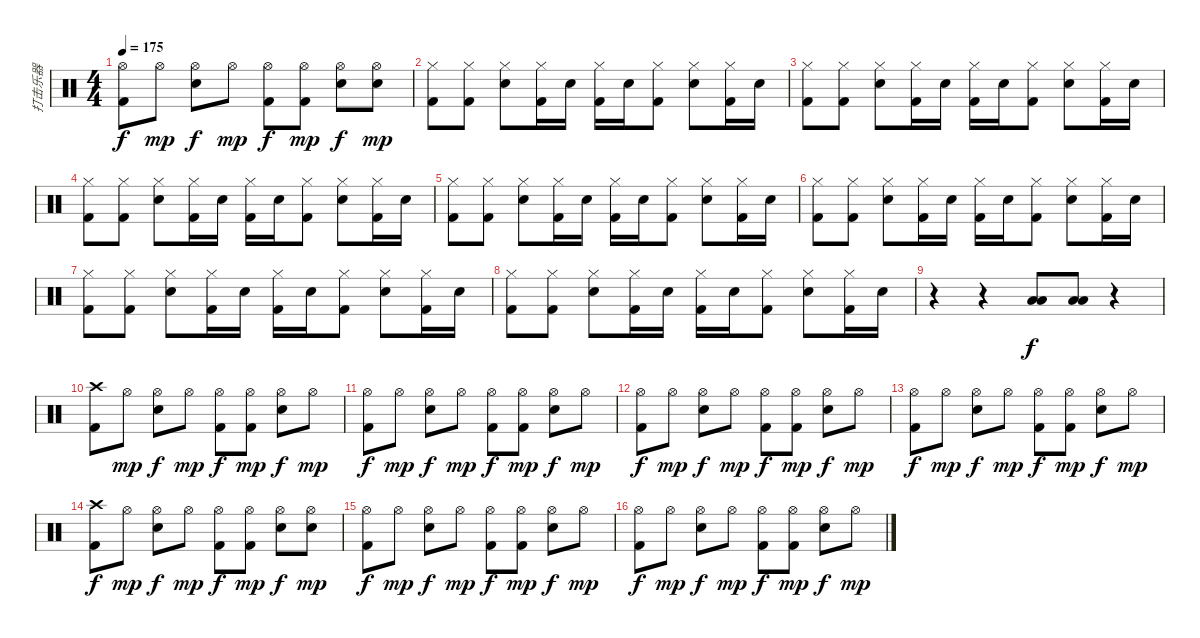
\track ("打击乐器" "打击乐器") {instrument percussion}
\staff {score}
\articulation defaults
\ts (4 4)
\tempo 175
\clef neutral
\ks c
("Hi-Hat (open)" "Kick (hit) 2").8{dy f} "Hi-Hat (open)".8{dy mp} ("Hi-Hat (open)" "Electric Snare (hit)").8{dy f} "Hi-Hat (open)".8{dy mp} ("Hi-Hat (open)" "Kick (hit) 2").8{dy f} ("Hi-Hat (open)" "Kick (hit) 2").8{dy mp} ("Hi-Hat (open)" "Electric Snare (hit)").8{dy f} ("Hi-Hat (open)" "Electric Snare (hit)").8{dy mp} |
("Hi-Hat (closed)" "Kick (hit) 2").8{volume 7} ("Hi-Hat (closed)" "Kick (hit) 2").8 ("Hi-Hat (closed)" "Electric Snare (hit)").8 ("Hi-Hat (closed)" "Kick (hit) 2").16 "Electric Snare (hit)".16 ("Hi-Hat (closed)" "Kick (hit) 2").16 "Electric Snare (hit)".16 ("Hi-Hat (closed)" "Kick (hit) 2").8 ("Hi-Hat (closed)" "Electric Snare (hit)").8 ("Hi-Hat (closed)" "Kick (hit) 2").16 "Electric Snare (hit)".16 |
("Hi-Hat (closed)" "Kick (hit) 2").8 ("Hi-Hat (closed)" "Kick (hit) 2").8 ("Hi-Hat (closed)" "Electric Snare (hit)").8 ("Hi-Hat (closed)" "Kick (hit) 2").16 "Electric Snare (hit)".16 ("Hi-Hat (closed)" "Kick (hit) 2").16 "Electric Snare (hit)".16 ("Hi-Hat (closed)" "Kick (hit) 2").8 ("Hi-Hat (closed)" "Electric Snare (hit)").8 ("Hi-Hat (closed)" "Kick (hit) 2").16 "Electric Snare (hit)".16 |
("Hi-Hat (closed)" "Kick (hit) 2").8 ("Hi-Hat (closed)" "Kick (hit) 2").8 ("Hi-Hat (closed)" "Electric Snare (hit)").8 ("Hi-Hat (closed)" "Kick (hit) 2").16 "Electric Snare (hit)".16 ("Hi-Hat (closed)" "Kick (hit) 2").16 "Electric Snare (hit)".16 ("Hi-Hat (closed)" "Kick (hit) 2").8 ("Hi-Hat (closed)" "Electric Snare (hit)").8 ("Hi-Hat (closed)" "Kick (hit) 2").16 "Electric Snare (hit)".16 |
("Hi-Hat (closed)" "Kick (hit) 2").8 ("Hi-Hat (closed)" "Kick (hit) 2").8 ("Hi-Hat (closed)" "Electric Snare (hit)").8 ("Hi-Hat (closed)" "Kick (hit) 2").16 "Electric Snare (hit)".16 ("Hi-Hat (closed)" "Kick (hit) 2").16 "Electric Snare (hit)".16 ("Hi-Hat (closed)" "Kick (hit) 2").8 ("Hi-Hat (closed)" "Electric Snare (hit)").8 ("Hi-Hat (closed)" "Kick (hit) 2").16 "Electric Snare (hit)".16 |
("Hi-Hat (closed)" "Kick (hit) 2").8 ("Hi-Hat (closed)" "Kick (hit) 2").8 ("Hi-Hat (closed)" "Electric Snare (hit)").8 ("Hi-Hat (closed)" "Kick (hit) 2").16 "Electric Snare (hit)".16 ("Hi-Hat (closed)" "Kick (hit) 2").16 "Electric Snare (hit)".16 ("Hi-Hat (closed)" "Kick (hit) 2").8 ("Hi-Hat (closed)" "Electric Snare (hit)").8 ("Hi-Hat (closed)" "Kick (hit) 2").16 "Electric Snare (hit)".16 |
("Hi-Hat (closed)" "Kick (hit) 2").8 ("Hi-Hat (closed)" "Kick (hit) 2").8 ("Hi-Hat (closed)" "Electric Snare (hit)").8 ("Hi-Hat (closed)" "Kick (hit) 2").16 "Electric Snare (hit)".16 ("Hi-Hat (closed)" "Kick (hit) 2").16 "Electric Snare (hit)".16 ("Hi-Hat (closed)" "Kick (hit) 2").8 ("Hi-Hat (closed)" "Electric Snare (hit)").8 ("Hi-Hat (closed)" "Kick (hit) 2").16 "Electric Snare (hit)".16 |
("Hi-Hat (closed)" "Kick (hit) 2").8 ("Hi-Hat (closed)" "Kick (hit) 2").8 ("Hi-Hat (closed)" "Electric Snare (hit)").8 ("Hi-Hat (closed)" "Kick (hit) 2").16 "Electric Snare (hit)".16 ("Hi-Hat (closed)" "Kick (hit) 2").16 "Electric Snare (hit)".16 ("Hi-Hat (closed)" "Kick (hit) 2").8 ("Hi-Hat (closed)" "Electric Snare (hit)").8 ("Hi-Hat (closed)" "Kick (hit) 2").16 "Electric Snare (hit)".16 |
r.4 r.4 ("Low Floor Tom (hit)" "Low Floor Tom (hit)").8{dy f volume 16} ("Low Floor Tom (hit)" "Low Floor Tom (hit)").8 r.4 |
("Crash high (hit)" "Kick (hit) 2").8{volume 16} "Hi-Hat (open)".8{dy mp} ("Hi-Hat (open)" "Electric Snare (hit)").8{dy f} "Hi-Hat (open)".8{dy mp} ("Hi-Hat (open)" "Kick (hit) 2").8{dy f} ("Hi-Hat (open)" "Kick (hit) 2").8{dy mp} ("Hi-Hat (open)" "Electric Snare (hit)").8{dy f} "Hi-Hat (open)".8{dy mp} |
("Hi-Hat (open)" "Kick (hit) 2").8{dy f} "Hi-Hat (open)".8{dy mp} ("Hi-Hat (open)" "Electric Snare (hit)").8{dy f} "Hi-Hat (open)".8{dy mp} ("Hi-Hat (open)" "Kick (hit) 2").8{dy f} ("Hi-Hat (open)" "Kick (hit) 2").8{dy mp} ("Hi-Hat (open)" "Electric Snare (hit)").8{dy f} "Hi-Hat (open)".8{dy mp} |
("Hi-Hat (open)" "Kick (hit) 2").8{dy f} "Hi-Hat (open)".8{dy mp} ("Hi-Hat (open)" "Electric Snare (hit)").8{dy f} "Hi-Hat (open)".8{dy mp} ("Hi-Hat (open)" "Kick (hit) 2").8{dy f} ("Hi-Hat (open)" "Kick (hit) 2").8{dy mp} ("Hi-Hat (open)" "Electric Snare (hit)").8{dy f} "Hi-Hat (open)".8{dy mp} |
("Hi-Hat (open)" "Kick (hit) 2").8{dy f} "Hi-Hat (open)".8{dy mp} ("Hi-Hat (open)" "Electric Snare (hit)").8{dy f} "Hi-Hat (open)".8{dy mp} ("Hi-Hat (open)" "Kick (hit) 2").8{dy f} ("Hi-Hat (open)" "Kick (hit) 2").8{dy mp} ("Hi-Hat (open)" "Electric Snare (hit)").8{dy f} "Hi-Hat (open)".8{dy mp} |
("Crash high (hit)" "Kick (hit) 2").8{dy f} "Hi-Hat (open)".8{dy mp} ("Hi-Hat (open)" "Electric Snare (hit)").8{dy f} "Hi-Hat (open)".8{dy mp} ("Hi-Hat (open)" "Kick (hit) 2").8{dy f} ("Hi-Hat (open)" "Kick (hit) 2").8{dy mp} ("Hi-Hat (open)" "Electric Snare (hit)").8{dy f} ("Hi-Hat (open)" "Electric Snare (hit)").8{dy mp} |
("Hi-Hat (open)" "Kick (hit) 2").8{dy f} "Hi-Hat (open)".8{dy mp} ("Hi-Hat (open)" "Electric Snare (hit)").8{dy f} "Hi-Hat (open)".8{dy mp} ("Hi-Hat (open)" "Kick (hit) 2").8{dy f} ("Hi-Hat (open)" "Kick (hit) 2").8{dy mp} ("Hi-Hat (open)" "Electric Snare (hit)").8{dy f} "Hi-Hat (open)".8{dy mp} |
("Hi-Hat (open)" "Kick (hit) 2").8{dy f} "Hi-Hat (open)".8{dy mp} ("Hi-Hat (open)" "Electric Snare (hit)").8{dy f} "Hi-Hat (open)".8{dy mp} ("Hi-Hat (open)" "Kick (hit) 2").8{dy f} ("Hi-Hat (open)" "Kick (hit) 2").8{dy mp} ("Hi-Hat (open)" "Electric Snare (hit)").8{dy f} "Hi-Hat (open)".8{dy mp}
